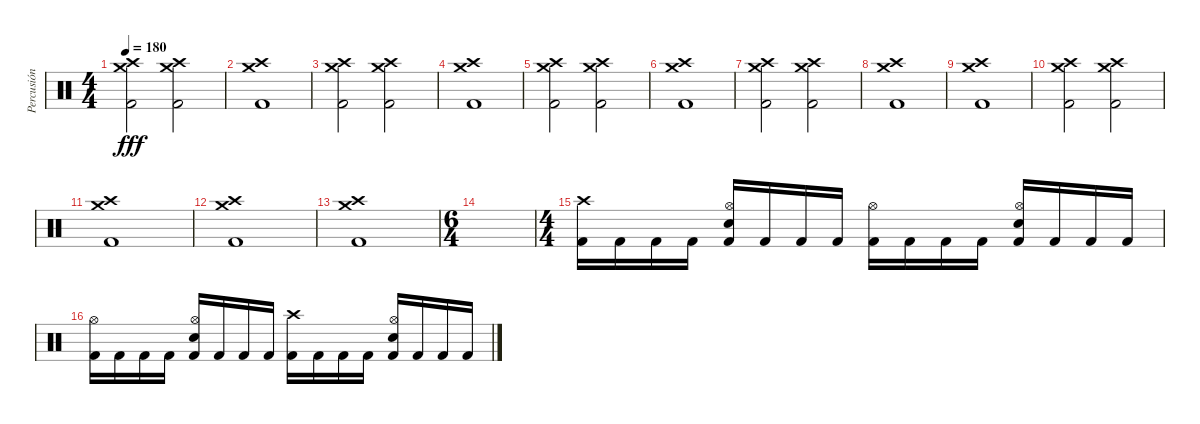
\track ("Percusión" "Percusión") {instrument percussion}
\staff {score}
\articulation defaults
\ts (4 4)
\tempo 180
\clef neutral
\ks c
("Crash medium (hit)" "Crash high (hit)" "Kick (hit) 2").2{dy fff} ("Crash medium (hit)" "Crash high (hit)" "Kick (hit) 2").2 |
("Crash medium (hit)" "Crash high (hit)" "Kick (hit) 2").1 |
("Crash medium (hit)" "Crash high (hit)" "Kick (hit) 2").2 ("Crash medium (hit)" "Crash high (hit)" "Kick (hit) 2").2 |
("Crash medium (hit)" "Crash high (hit)" "Kick (hit) 2").1 |
("Crash medium (hit)" "Crash high (hit)" "Kick (hit) 2").2 ("Crash medium (hit)" "Crash high (hit)" "Kick (hit) 2").2 |
("Crash medium (hit)" "Crash high (hit)" "Kick (hit) 2").1 |
("Crash medium (hit)" "Crash high (hit)" "Kick (hit) 2").2 ("Crash medium (hit)" "Crash high (hit)" "Kick (hit) 2").2 |
("Crash medium (hit)" "Crash high (hit)" "Kick (hit) 2").1 |
("Crash medium (hit)" "Crash high (hit)" "Kick (hit) 2").1 |
("Crash medium (hit)" "Crash high (hit)" "Kick (hit) 2").2 ("Crash medium (hit)" "Crash high (hit)" "Kick (hit) 2").2 |
("Crash medium (hit)" "Crash high (hit)" "Kick (hit) 2").1 |
("Crash medium (hit)" "Crash high (hit)" "Kick (hit) 2").1 |
("Crash medium (hit)" "Crash high (hit)" "Kick (hit) 2").1 |
\ts (6 4)
|
\ts (4 4)
("Crash high (hit)" "Kick (hit) 2").16 "Kick (hit) 2".16 "Kick (hit) 2".16 "Kick (hit) 2".16 ("Hi-Hat (open)" "Electric Snare (hit)" "Kick (hit) 2").16 "Kick (hit) 2".16 "Kick (hit) 2".16 "Kick (hit) 2".16 ("Hi-Hat (open)" "Kick (hit) 2").16 "Kick (hit) 2".16 "Kick (hit) 2".16 "Kick (hit) 2".16 ("Hi-Hat (open)" "Electric Snare (hit)" "Kick (hit) 2").16 "Kick (hit) 2".16 "Kick (hit) 2".16 "Kick (hit) 2".16 |
("Hi-Hat (open)" "Kick (hit) 2").16 "Kick (hit) 2".16 "Kick (hit) 2".16 "Kick (hit) 2".16 ("Hi-Hat (open)" "Electric Snare (hit)" "Kick (hit) 2").16 "Kick (hit) 2".16 "Kick (hit) 2".16 "Kick (hit) 2".16 ("Crash high (hit)" "Kick (hit) 2").16 "Kick (hit) 2".16 "Kick (hit) 2".16 "Kick (hit) 2".16 ("Hi-Hat (open)" "Electric Snare (hit)" "Kick (hit) 2").16 "Kick (hit) 2".16 "Kick (hit) 2".16 "Kick (hit) 2".16
